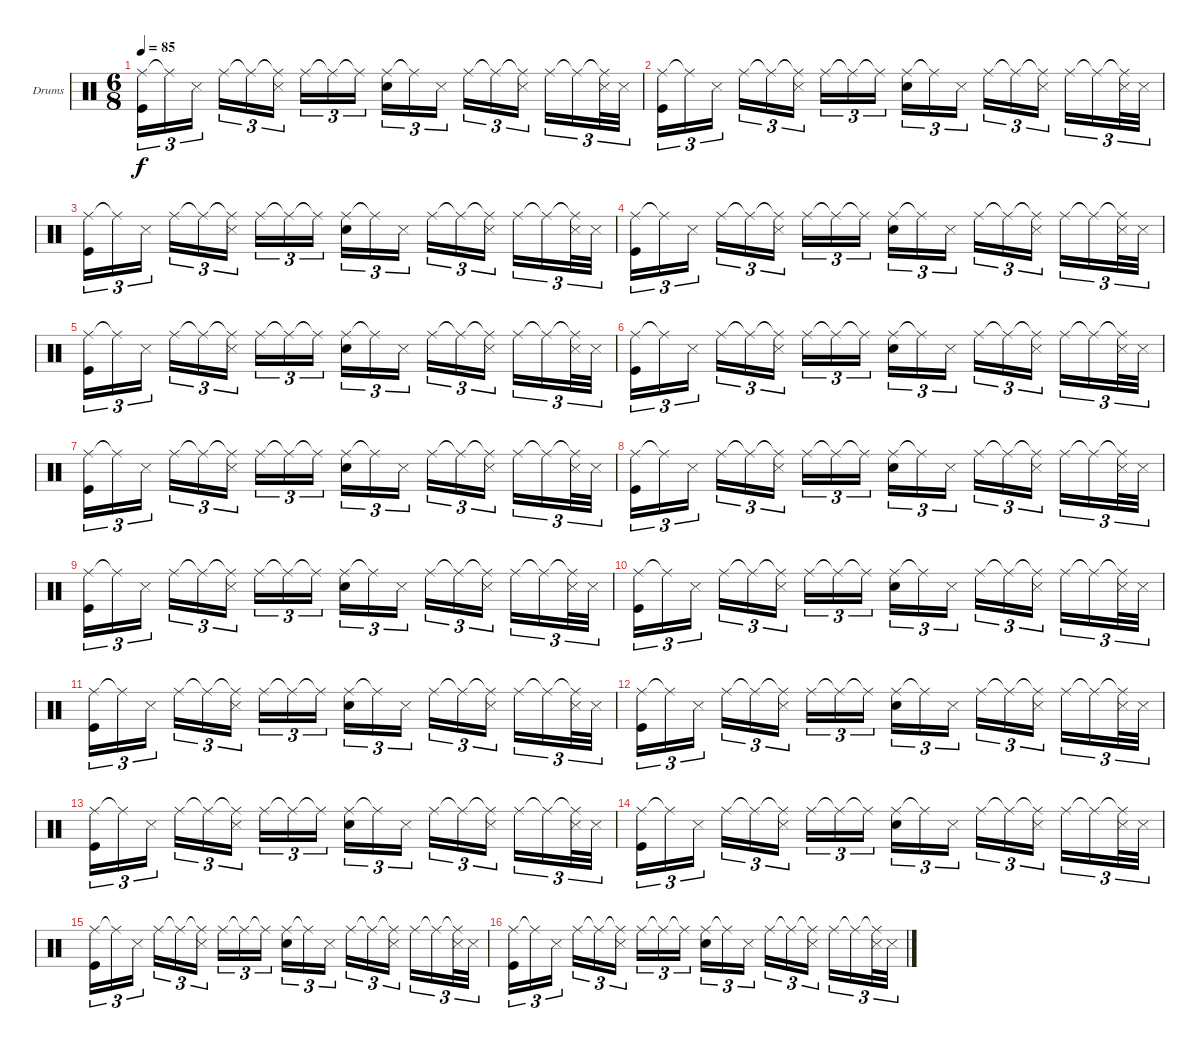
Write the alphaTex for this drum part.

\bracketExtendMode groupsimilarinstruments
\firstSystemTrackNameOrientation horizontal
\otherSystemsTrackNameOrientation horizontal
\track ("Drumkit" "Drums") {instrument percussion}
\staff {score}
\articulation defaults
\ts (6 8)
\tempo 85
\clef neutral
\ks c
("Ride (middle)" "Kick (hit)").16{tu (3 2) dy f} "Ride (middle)"{t}.16{tu (3 2)} "Snare (side stick) 3".16{tu (3 2)} "Ride (middle)".16{tu (3 2)} "Ride (middle)"{t}.16{tu (3 2)} ("Ride (middle)"{t} "Snare (side stick) 3").16{tu (3 2)} "Ride (middle)".16{tu (3 2)} "Ride (middle)"{t}.16{tu (3 2)} "Ride (middle)"{t}.16{tu (3 2)} ("Ride (middle)" "Snare (hit) 2").16{tu (3 2)} "Ride (middle)"{t}.16{tu (3 2)} "Snare (side stick) 3".16{tu (3 2)} "Ride (middle)".16{tu (3 2)} "Ride (middle)"{t}.16{tu (3 2)} ("Ride (middle)"{t} "Snare (side stick) 3").16{tu (3 2)} "Ride (middle)".16{tu (3 2)} "Ride (middle)"{t}.16{tu (3 2)} ("Ride (middle)"{t} "Snare (side stick) 3").32{tu (3 2)} "Snare (side stick) 3".32{tu (3 2)} |
("Ride (middle)" "Kick (hit)").16{tu (3 2)} "Ride (middle)"{t}.16{tu (3 2)} "Snare (side stick) 3".16{tu (3 2)} "Ride (middle)".16{tu (3 2)} "Ride (middle)"{t}.16{tu (3 2)} ("Ride (middle)"{t} "Snare (side stick) 3").16{tu (3 2)} "Ride (middle)".16{tu (3 2)} "Ride (middle)"{t}.16{tu (3 2)} "Ride (middle)"{t}.16{tu (3 2)} ("Ride (middle)" "Snare (hit) 2").16{tu (3 2)} "Ride (middle)"{t}.16{tu (3 2)} "Snare (side stick) 3".16{tu (3 2)} "Ride (middle)".16{tu (3 2)} "Ride (middle)"{t}.16{tu (3 2)} ("Ride (middle)"{t} "Snare (side stick) 3").16{tu (3 2)} "Ride (middle)".16{tu (3 2)} "Ride (middle)"{t}.16{tu (3 2)} ("Ride (middle)"{t} "Snare (side stick) 3").32{tu (3 2)} "Snare (side stick) 3".32{tu (3 2)} |
("Ride (middle)" "Kick (hit)").16{tu (3 2)} "Ride (middle)"{t}.16{tu (3 2)} "Snare (side stick) 3".16{tu (3 2)} "Ride (middle)".16{tu (3 2)} "Ride (middle)"{t}.16{tu (3 2)} ("Ride (middle)"{t} "Snare (side stick) 3").16{tu (3 2)} "Ride (middle)".16{tu (3 2)} "Ride (middle)"{t}.16{tu (3 2)} "Ride (middle)"{t}.16{tu (3 2)} ("Ride (middle)" "Snare (hit) 2").16{tu (3 2)} "Ride (middle)"{t}.16{tu (3 2)} "Snare (side stick) 3".16{tu (3 2)} "Ride (middle)".16{tu (3 2)} "Ride (middle)"{t}.16{tu (3 2)} ("Ride (middle)"{t} "Snare (side stick) 3").16{tu (3 2)} "Ride (middle)".16{tu (3 2)} "Ride (middle)"{t}.16{tu (3 2)} ("Ride (middle)"{t} "Snare (side stick) 3").32{tu (3 2)} "Snare (side stick) 3".32{tu (3 2)} |
("Ride (middle)" "Kick (hit)").16{tu (3 2)} "Ride (middle)"{t}.16{tu (3 2)} "Snare (side stick) 3".16{tu (3 2)} "Ride (middle)".16{tu (3 2)} "Ride (middle)"{t}.16{tu (3 2)} ("Ride (middle)"{t} "Snare (side stick) 3").16{tu (3 2)} "Ride (middle)".16{tu (3 2)} "Ride (middle)"{t}.16{tu (3 2)} "Ride (middle)"{t}.16{tu (3 2)} ("Ride (middle)" "Snare (hit) 2").16{tu (3 2)} "Ride (middle)"{t}.16{tu (3 2)} "Snare (side stick) 3".16{tu (3 2)} "Ride (middle)".16{tu (3 2)} "Ride (middle)"{t}.16{tu (3 2)} ("Ride (middle)"{t} "Snare (side stick) 3").16{tu (3 2)} "Ride (middle)".16{tu (3 2)} "Ride (middle)"{t}.16{tu (3 2)} ("Ride (middle)"{t} "Snare (side stick) 3").32{tu (3 2)} "Snare (side stick) 3".32{tu (3 2)} |
("Ride (middle)" "Kick (hit)").16{tu (3 2)} "Ride (middle)"{t}.16{tu (3 2)} "Snare (side stick) 3".16{tu (3 2)} "Ride (middle)".16{tu (3 2)} "Ride (middle)"{t}.16{tu (3 2)} ("Ride (middle)"{t} "Snare (side stick) 3").16{tu (3 2)} "Ride (middle)".16{tu (3 2)} "Ride (middle)"{t}.16{tu (3 2)} "Ride (middle)"{t}.16{tu (3 2)} ("Ride (middle)" "Snare (hit) 2").16{tu (3 2)} "Ride (middle)"{t}.16{tu (3 2)} "Snare (side stick) 3".16{tu (3 2)} "Ride (middle)".16{tu (3 2)} "Ride (middle)"{t}.16{tu (3 2)} ("Ride (middle)"{t} "Snare (side stick) 3").16{tu (3 2)} "Ride (middle)".16{tu (3 2)} "Ride (middle)"{t}.16{tu (3 2)} ("Ride (middle)"{t} "Snare (side stick) 3").32{tu (3 2)} "Snare (side stick) 3".32{tu (3 2)} |
("Ride (middle)" "Kick (hit)").16{tu (3 2)} "Ride (middle)"{t}.16{tu (3 2)} "Snare (side stick) 3".16{tu (3 2)} "Ride (middle)".16{tu (3 2)} "Ride (middle)"{t}.16{tu (3 2)} ("Ride (middle)"{t} "Snare (side stick) 3").16{tu (3 2)} "Ride (middle)".16{tu (3 2)} "Ride (middle)"{t}.16{tu (3 2)} "Ride (middle)"{t}.16{tu (3 2)} ("Ride (middle)" "Snare (hit) 2").16{tu (3 2)} "Ride (middle)"{t}.16{tu (3 2)} "Snare (side stick) 3".16{tu (3 2)} "Ride (middle)".16{tu (3 2)} "Ride (middle)"{t}.16{tu (3 2)} ("Ride (middle)"{t} "Snare (side stick) 3").16{tu (3 2)} "Ride (middle)".16{tu (3 2)} "Ride (middle)"{t}.16{tu (3 2)} ("Ride (middle)"{t} "Snare (side stick) 3").32{tu (3 2)} "Snare (side stick) 3".32{tu (3 2)} |
("Ride (middle)" "Kick (hit)").16{tu (3 2)} "Ride (middle)"{t}.16{tu (3 2)} "Snare (side stick) 3".16{tu (3 2)} "Ride (middle)".16{tu (3 2)} "Ride (middle)"{t}.16{tu (3 2)} ("Ride (middle)"{t} "Snare (side stick) 3").16{tu (3 2)} "Ride (middle)".16{tu (3 2)} "Ride (middle)"{t}.16{tu (3 2)} "Ride (middle)"{t}.16{tu (3 2)} ("Ride (middle)" "Snare (hit) 2").16{tu (3 2)} "Ride (middle)"{t}.16{tu (3 2)} "Snare (side stick) 3".16{tu (3 2)} "Ride (middle)".16{tu (3 2)} "Ride (middle)"{t}.16{tu (3 2)} ("Ride (middle)"{t} "Snare (side stick) 3").16{tu (3 2)} "Ride (middle)".16{tu (3 2)} "Ride (middle)"{t}.16{tu (3 2)} ("Ride (middle)"{t} "Snare (side stick) 3").32{tu (3 2)} "Snare (side stick) 3".32{tu (3 2)} |
("Ride (middle)" "Kick (hit)").16{tu (3 2)} "Ride (middle)"{t}.16{tu (3 2)} "Snare (side stick) 3".16{tu (3 2)} "Ride (middle)".16{tu (3 2)} "Ride (middle)"{t}.16{tu (3 2)} ("Ride (middle)"{t} "Snare (side stick) 3").16{tu (3 2)} "Ride (middle)".16{tu (3 2)} "Ride (middle)"{t}.16{tu (3 2)} "Ride (middle)"{t}.16{tu (3 2)} ("Ride (middle)" "Snare (hit) 2").16{tu (3 2)} "Ride (middle)"{t}.16{tu (3 2)} "Snare (side stick) 3".16{tu (3 2)} "Ride (middle)".16{tu (3 2)} "Ride (middle)"{t}.16{tu (3 2)} ("Ride (middle)"{t} "Snare (side stick) 3").16{tu (3 2)} "Ride (middle)".16{tu (3 2)} "Ride (middle)"{t}.16{tu (3 2)} ("Ride (middle)"{t} "Snare (side stick) 3").32{tu (3 2)} "Snare (side stick) 3".32{tu (3 2)} |
("Ride (middle)" "Kick (hit)").16{tu (3 2)} "Ride (middle)"{t}.16{tu (3 2)} "Snare (side stick) 3".16{tu (3 2)} "Ride (middle)".16{tu (3 2)} "Ride (middle)"{t}.16{tu (3 2)} ("Ride (middle)"{t} "Snare (side stick) 3").16{tu (3 2)} "Ride (middle)".16{tu (3 2)} "Ride (middle)"{t}.16{tu (3 2)} "Ride (middle)"{t}.16{tu (3 2)} ("Ride (middle)" "Snare (hit) 2").16{tu (3 2)} "Ride (middle)"{t}.16{tu (3 2)} "Snare (side stick) 3".16{tu (3 2)} "Ride (middle)".16{tu (3 2)} "Ride (middle)"{t}.16{tu (3 2)} ("Ride (middle)"{t} "Snare (side stick) 3").16{tu (3 2)} "Ride (middle)".16{tu (3 2)} "Ride (middle)"{t}.16{tu (3 2)} ("Ride (middle)"{t} "Snare (side stick) 3").32{tu (3 2)} "Snare (side stick) 3".32{tu (3 2)} |
("Ride (middle)" "Kick (hit)").16{tu (3 2)} "Ride (middle)"{t}.16{tu (3 2)} "Snare (side stick) 3".16{tu (3 2)} "Ride (middle)".16{tu (3 2)} "Ride (middle)"{t}.16{tu (3 2)} ("Ride (middle)"{t} "Snare (side stick) 3").16{tu (3 2)} "Ride (middle)".16{tu (3 2)} "Ride (middle)"{t}.16{tu (3 2)} "Ride (middle)"{t}.16{tu (3 2)} ("Ride (middle)" "Snare (hit) 2").16{tu (3 2)} "Ride (middle)"{t}.16{tu (3 2)} "Snare (side stick) 3".16{tu (3 2)} "Ride (middle)".16{tu (3 2)} "Ride (middle)"{t}.16{tu (3 2)} ("Ride (middle)"{t} "Snare (side stick) 3").16{tu (3 2)} "Ride (middle)".16{tu (3 2)} "Ride (middle)"{t}.16{tu (3 2)} ("Ride (middle)"{t} "Snare (side stick) 3").32{tu (3 2)} "Snare (side stick) 3".32{tu (3 2)} |
("Ride (middle)" "Kick (hit)").16{tu (3 2)} "Ride (middle)"{t}.16{tu (3 2)} "Snare (side stick) 3".16{tu (3 2)} "Ride (middle)".16{tu (3 2)} "Ride (middle)"{t}.16{tu (3 2)} ("Ride (middle)"{t} "Snare (side stick) 3").16{tu (3 2)} "Ride (middle)".16{tu (3 2)} "Ride (middle)"{t}.16{tu (3 2)} "Ride (middle)"{t}.16{tu (3 2)} ("Ride (middle)" "Snare (hit) 2").16{tu (3 2)} "Ride (middle)"{t}.16{tu (3 2)} "Snare (side stick) 3".16{tu (3 2)} "Ride (middle)".16{tu (3 2)} "Ride (middle)"{t}.16{tu (3 2)} ("Ride (middle)"{t} "Snare (side stick) 3").16{tu (3 2)} "Ride (middle)".16{tu (3 2)} "Ride (middle)"{t}.16{tu (3 2)} ("Ride (middle)"{t} "Snare (side stick) 3").32{tu (3 2)} "Snare (side stick) 3".32{tu (3 2)} |
("Ride (middle)" "Kick (hit)").16{tu (3 2)} "Ride (middle)"{t}.16{tu (3 2)} "Snare (side stick) 3".16{tu (3 2)} "Ride (middle)".16{tu (3 2)} "Ride (middle)"{t}.16{tu (3 2)} ("Ride (middle)"{t} "Snare (side stick) 3").16{tu (3 2)} "Ride (middle)".16{tu (3 2)} "Ride (middle)"{t}.16{tu (3 2)} "Ride (middle)"{t}.16{tu (3 2)} ("Ride (middle)" "Snare (hit) 2").16{tu (3 2)} "Ride (middle)"{t}.16{tu (3 2)} "Snare (side stick) 3".16{tu (3 2)} "Ride (middle)".16{tu (3 2)} "Ride (middle)"{t}.16{tu (3 2)} ("Ride (middle)"{t} "Snare (side stick) 3").16{tu (3 2)} "Ride (middle)".16{tu (3 2)} "Ride (middle)"{t}.16{tu (3 2)} ("Ride (middle)"{t} "Snare (side stick) 3").32{tu (3 2)} "Snare (side stick) 3".32{tu (3 2)} |
("Ride (middle)" "Kick (hit)").16{tu (3 2)} "Ride (middle)"{t}.16{tu (3 2)} "Snare (side stick) 3".16{tu (3 2)} "Ride (middle)".16{tu (3 2)} "Ride (middle)"{t}.16{tu (3 2)} ("Ride (middle)"{t} "Snare (side stick) 3").16{tu (3 2)} "Ride (middle)".16{tu (3 2)} "Ride (middle)"{t}.16{tu (3 2)} "Ride (middle)"{t}.16{tu (3 2)} ("Ride (middle)" "Snare (hit) 2").16{tu (3 2)} "Ride (middle)"{t}.16{tu (3 2)} "Snare (side stick) 3".16{tu (3 2)} "Ride (middle)".16{tu (3 2)} "Ride (middle)"{t}.16{tu (3 2)} ("Ride (middle)"{t} "Snare (side stick) 3").16{tu (3 2)} "Ride (middle)".16{tu (3 2)} "Ride (middle)"{t}.16{tu (3 2)} ("Ride (middle)"{t} "Snare (side stick) 3").32{tu (3 2)} "Snare (side stick) 3".32{tu (3 2)} |
("Ride (middle)" "Kick (hit)").16{tu (3 2)} "Ride (middle)"{t}.16{tu (3 2)} "Snare (side stick) 3".16{tu (3 2)} "Ride (middle)".16{tu (3 2)} "Ride (middle)"{t}.16{tu (3 2)} ("Ride (middle)"{t} "Snare (side stick) 3").16{tu (3 2)} "Ride (middle)".16{tu (3 2)} "Ride (middle)"{t}.16{tu (3 2)} "Ride (middle)"{t}.16{tu (3 2)} ("Ride (middle)" "Snare (hit) 2").16{tu (3 2)} "Ride (middle)"{t}.16{tu (3 2)} "Snare (side stick) 3".16{tu (3 2)} "Ride (middle)".16{tu (3 2)} "Ride (middle)"{t}.16{tu (3 2)} ("Ride (middle)"{t} "Snare (side stick) 3").16{tu (3 2)} "Ride (middle)".16{tu (3 2)} "Ride (middle)"{t}.16{tu (3 2)} ("Ride (middle)"{t} "Snare (side stick) 3").32{tu (3 2)} "Snare (side stick) 3".32{tu (3 2)} |
("Ride (middle)" "Kick (hit)").16{tu (3 2)} "Ride (middle)"{t}.16{tu (3 2)} "Snare (side stick) 3".16{tu (3 2)} "Ride (middle)".16{tu (3 2)} "Ride (middle)"{t}.16{tu (3 2)} ("Ride (middle)"{t} "Snare (side stick) 3").16{tu (3 2)} "Ride (middle)".16{tu (3 2)} "Ride (middle)"{t}.16{tu (3 2)} "Ride (middle)"{t}.16{tu (3 2)} ("Ride (middle)" "Snare (hit) 2").16{tu (3 2)} "Ride (middle)"{t}.16{tu (3 2)} "Snare (side stick) 3".16{tu (3 2)} "Ride (middle)".16{tu (3 2)} "Ride (middle)"{t}.16{tu (3 2)} ("Ride (middle)"{t} "Snare (side stick) 3").16{tu (3 2)} "Ride (middle)".16{tu (3 2)} "Ride (middle)"{t}.16{tu (3 2)} ("Ride (middle)"{t} "Snare (side stick) 3").32{tu (3 2)} "Snare (side stick) 3".32{tu (3 2)} |
("Ride (middle)" "Kick (hit)").16{tu (3 2)} "Ride (middle)"{t}.16{tu (3 2)} "Snare (side stick) 3".16{tu (3 2)} "Ride (middle)".16{tu (3 2)} "Ride (middle)"{t}.16{tu (3 2)} ("Ride (middle)"{t} "Snare (side stick) 3").16{tu (3 2)} "Ride (middle)".16{tu (3 2)} "Ride (middle)"{t}.16{tu (3 2)} "Ride (middle)"{t}.16{tu (3 2)} ("Ride (middle)" "Snare (hit) 2").16{tu (3 2)} "Ride (middle)"{t}.16{tu (3 2)} "Snare (side stick) 3".16{tu (3 2)} "Ride (middle)".16{tu (3 2)} "Ride (middle)"{t}.16{tu (3 2)} ("Ride (middle)"{t} "Snare (side stick) 3").16{tu (3 2)} "Ride (middle)".16{tu (3 2)} "Ride (middle)"{t}.16{tu (3 2)} ("Ride (middle)"{t} "Snare (side stick) 3").32{tu (3 2)} "Snare (side stick) 3".32{tu (3 2)}
